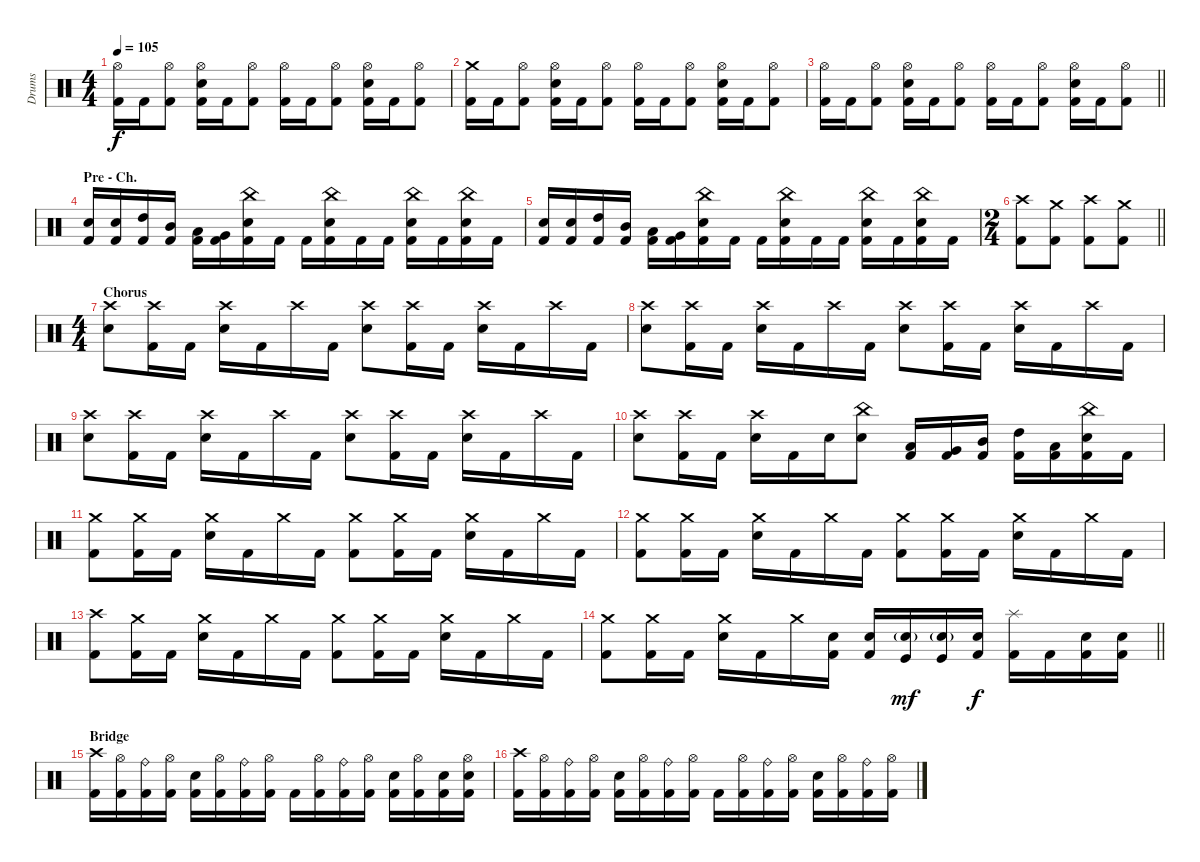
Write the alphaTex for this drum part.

\track ("Drums" "Drums") {instrument percussion}
\staff {score}
\articulation defaults
\ts (4 4)
\tempo 105
\clef neutral
\ks c
("Hi-Hat (open)" "Kick (hit) 2").16{dy f} "Kick (hit) 2".16 ("Hi-Hat (open)" "Kick (hit) 2").8 ("Hi-Hat (open)" "Electric Snare (hit)" "Kick (hit) 2").16 "Kick (hit) 2".16 ("Hi-Hat (open)" "Kick (hit) 2").8 ("Hi-Hat (open)" "Kick (hit) 2").16 "Kick (hit) 2".16 ("Hi-Hat (open)" "Kick (hit) 2").8 ("Hi-Hat (open)" "Electric Snare (hit)" "Kick (hit) 2").16 "Kick (hit) 2".16 ("Hi-Hat (open)" "Kick (hit) 2").8 |
("Crash medium (hit)" "Kick (hit) 2").16 "Kick (hit) 2".16 ("Hi-Hat (open)" "Kick (hit) 2").8 ("Hi-Hat (open)" "Electric Snare (hit)" "Kick (hit) 2").16 "Kick (hit) 2".16 ("Hi-Hat (open)" "Kick (hit) 2").8 ("Hi-Hat (open)" "Kick (hit) 2").16 "Kick (hit) 2".16 ("Hi-Hat (open)" "Kick (hit) 2").8 ("Hi-Hat (open)" "Electric Snare (hit)" "Kick (hit) 2").16 "Kick (hit) 2".16 ("Hi-Hat (open)" "Kick (hit) 2").8 |
\barLineRight lightlight
("Hi-Hat (open)" "Kick (hit) 2").16 "Kick (hit) 2".16 ("Hi-Hat (open)" "Kick (hit) 2").8 ("Hi-Hat (open)" "Electric Snare (hit)" "Kick (hit) 2").16 "Kick (hit) 2".16 ("Hi-Hat (open)" "Kick (hit) 2").8 ("Hi-Hat (open)" "Kick (hit) 2").16 "Kick (hit) 2".16 ("Hi-Hat (open)" "Kick (hit) 2").8 ("Hi-Hat (open)" "Electric Snare (hit)" "Kick (hit) 2").16 "Kick (hit) 2".16 ("Hi-Hat (open)" "Kick (hit) 2").8 |
\section ("" "Pre - Ch.")
("Electric Snare (hit)" "Kick (hit) 2").16 ("Electric Snare (hit)" "Kick (hit) 2").16 ("High Tom (hit)" "Kick (hit) 2").16 ("Mid Tom (hit)" "Kick (hit) 2").16 ("Low Tom (hit)" "Kick (hit) 2").16 ("Very Low Tom (hit)" "Kick (hit) 2").16 ("China (hit)" "Electric Snare (hit)" "Kick (hit) 2").16 "Kick (hit) 2".16 "Kick (hit) 2".16 ("China (hit)" "Electric Snare (hit)" "Kick (hit) 2").16 "Kick (hit) 2".16 "Kick (hit) 2".16 ("China (hit)" "Electric Snare (hit)" "Kick (hit) 2").16 "Kick (hit) 2".16 ("China (hit)" "Electric Snare (hit)" "Kick (hit) 2").16 "Kick (hit) 2".16 |
("Electric Snare (hit)" "Kick (hit) 2").16 ("Electric Snare (hit)" "Kick (hit) 2").16 ("High Tom (hit)" "Kick (hit) 2").16 ("Mid Tom (hit)" "Kick (hit) 2").16 ("Low Tom (hit)" "Kick (hit) 2").16 ("Very Low Tom (hit)" "Kick (hit) 2").16 ("China (hit)" "Electric Snare (hit)" "Kick (hit) 2").16 "Kick (hit) 2".16 "Kick (hit) 2".16 ("China (hit)" "Electric Snare (hit)" "Kick (hit) 2").16 "Kick (hit) 2".16 "Kick (hit) 2".16 ("China (hit)" "Electric Snare (hit)" "Kick (hit) 2").16 "Kick (hit) 2".16 ("China (hit)" "Electric Snare (hit)" "Kick (hit) 2").16 "Kick (hit) 2".16 |
\ts (2 4)
\barLineRight lightlight
("Crash high (hit)" "Kick (hit) 2").8 ("Crash medium (hit)" "Kick (hit) 2").8 ("Crash high (hit)" "Kick (hit) 2").8 ("Crash medium (hit)" "Kick (hit) 2").8 |
\ts (4 4)
\section ("" "Chorus")
("Crash high (hit)" "Electric Snare (hit)").8 ("Crash high (hit)" "Kick (hit) 2").16 "Kick (hit) 2".16 ("Crash high (hit)" "Electric Snare (hit)").16 "Kick (hit) 2".16 "Crash high (hit)".16 "Kick (hit) 2".16 ("Crash high (hit)" "Electric Snare (hit)").8 ("Crash high (hit)" "Kick (hit) 2").16 "Kick (hit) 2".16 ("Crash high (hit)" "Electric Snare (hit)").16 "Kick (hit) 2".16 "Crash high (hit)".16 "Kick (hit) 2".16 |
("Crash high (hit)" "Electric Snare (hit)").8 ("Crash high (hit)" "Kick (hit) 2").16 "Kick (hit) 2".16 ("Crash high (hit)" "Electric Snare (hit)").16 "Kick (hit) 2".16 "Crash high (hit)".16 "Kick (hit) 2".16 ("Crash high (hit)" "Electric Snare (hit)").8 ("Crash high (hit)" "Kick (hit) 2").16 "Kick (hit) 2".16 ("Crash high (hit)" "Electric Snare (hit)").16 "Kick (hit) 2".16 "Crash high (hit)".16 "Kick (hit) 2".16 |
("Crash high (hit)" "Electric Snare (hit)").8 ("Crash high (hit)" "Kick (hit) 2").16 "Kick (hit) 2".16 ("Crash high (hit)" "Electric Snare (hit)").16 "Kick (hit) 2".16 "Crash high (hit)".16 "Kick (hit) 2".16 ("Crash high (hit)" "Electric Snare (hit)").8 ("Crash high (hit)" "Kick (hit) 2").16 "Kick (hit) 2".16 ("Crash high (hit)" "Electric Snare (hit)").16 "Kick (hit) 2".16 "Crash high (hit)".16 "Kick (hit) 2".16 |
("Crash high (hit)" "Electric Snare (hit)").8 ("Crash high (hit)" "Kick (hit) 2").16 "Kick (hit) 2".16 ("Crash high (hit)" "Electric Snare (hit)").16 "Kick (hit) 2".16 "Electric Snare (hit)".16 ("China (hit)" "Electric Snare (hit)").8 ("Low Tom (hit)" "Kick (hit) 2").16 ("Very Low Tom (hit)" "Kick (hit) 2").16 ("Mid Tom (hit)" "Kick (hit) 2").16 ("High Tom (hit)" "Kick (hit) 2").16 ("Low Tom (hit)" "Kick (hit) 2").16 ("China (hit)" "Electric Snare (hit)" "Kick (hit) 2").16 "Kick (hit) 2".16 |
("Crash medium (hit)" "Kick (hit) 2").8 ("Crash medium (hit)" "Kick (hit) 2").16 "Kick (hit) 2".16 ("Crash medium (hit)" "Electric Snare (hit)").16 "Kick (hit) 2".16 "Crash medium (hit)".16 "Kick (hit) 2".16 ("Crash medium (hit)" "Kick (hit) 2").8 ("Crash medium (hit)" "Kick (hit) 2").16 "Kick (hit) 2".16 ("Crash medium (hit)" "Electric Snare (hit)").16 "Kick (hit) 2".16 "Crash medium (hit)".16 "Kick (hit) 2".16 |
("Crash medium (hit)" "Kick (hit) 2").8 ("Crash medium (hit)" "Kick (hit) 2").16 "Kick (hit) 2".16 ("Crash medium (hit)" "Electric Snare (hit)").16 "Kick (hit) 2".16 "Crash medium (hit)".16 "Kick (hit) 2".16 ("Crash medium (hit)" "Kick (hit) 2").8 ("Crash medium (hit)" "Kick (hit) 2").16 "Kick (hit) 2".16 ("Crash medium (hit)" "Electric Snare (hit)").16 "Kick (hit) 2".16 "Crash medium (hit)".16 "Kick (hit) 2".16 |
("Crash high (hit)" "Kick (hit) 2").8 ("Crash medium (hit)" "Kick (hit) 2").16 "Kick (hit) 2".16 ("Crash medium (hit)" "Electric Snare (hit)").16 "Kick (hit) 2".16 "Crash medium (hit)".16 "Kick (hit) 2".16 ("Crash medium (hit)" "Kick (hit) 2").8 ("Crash medium (hit)" "Kick (hit) 2").16 "Kick (hit) 2".16 ("Crash medium (hit)" "Electric Snare (hit)").16 "Kick (hit) 2".16 "Crash medium (hit)".16 "Kick (hit) 2".16 |
\barLineRight lightlight
("Crash medium (hit)" "Kick (hit) 2").8 ("Crash medium (hit)" "Kick (hit) 2").16 "Kick (hit) 2".16 ("Crash medium (hit)" "Electric Snare (hit)").16 "Kick (hit) 2".16 "Crash medium (hit)".16 ("Electric Snare (hit)" "Kick (hit) 2").16 ("Electric Snare (hit)" "Kick (hit) 2").16 ("Electric Snare (hit)"{g} "Kick (hit)").16{dy mf} ("Electric Snare (hit)"{g} "Kick (hit)").16 ("Electric Snare (hit)" "Kick (hit) 2").16{dy f} ("Splash (hit)" "Kick (hit) 2").16 "Kick (hit) 2".16 ("Electric Snare (hit)" "Kick (hit) 2").16 ("Electric Snare (hit)" "Kick (hit) 2").16 |
\section ("" "Bridge")
("Crash high (hit)" "Kick (hit) 2").16 ("Hi-Hat (open)" "Kick (hit) 2").16 ("Ride (bell)" "Kick (hit) 2").16 ("Hi-Hat (open)" "Kick (hit) 2").16 ("Electric Snare (hit)" "Kick (hit) 2").16 ("Hi-Hat (open)" "Kick (hit) 2").16 ("Ride (bell)" "Kick (hit) 2").16 ("Hi-Hat (open)" "Kick (hit) 2").16 "Kick (hit) 2".16 ("Hi-Hat (open)" "Kick (hit) 2").16 ("Ride (bell)" "Kick (hit) 2").16 ("Hi-Hat (open)" "Kick (hit) 2").16 ("Electric Snare (hit)" "Kick (hit) 2").16 ("Hi-Hat (open)" "Kick (hit) 2").16 ("Electric Snare (hit)" "Kick (hit) 2").16 ("Hi-Hat (open)" "Electric Snare (hit)" "Kick (hit) 2").16 |
("Crash high (hit)" "Kick (hit) 2").16 ("Hi-Hat (open)" "Kick (hit) 2").16 ("Ride (bell)" "Kick (hit) 2").16 ("Hi-Hat (open)" "Kick (hit) 2").16 ("Electric Snare (hit)" "Kick (hit) 2").16 ("Hi-Hat (open)" "Kick (hit) 2").16 ("Ride (bell)" "Kick (hit) 2").16 ("Hi-Hat (open)" "Kick (hit) 2").16 "Kick (hit) 2".16 ("Hi-Hat (open)" "Kick (hit) 2").16 ("Ride (bell)" "Kick (hit) 2").16 ("Hi-Hat (open)" "Kick (hit) 2").16 ("Electric Snare (hit)" "Kick (hit) 2").16 ("Hi-Hat (open)" "Kick (hit) 2").16 ("Ride (bell)" "Kick (hit) 2").16 ("Hi-Hat (open)" "Kick (hit) 2").16
